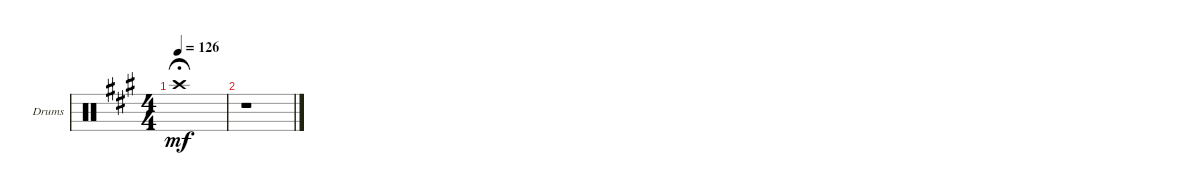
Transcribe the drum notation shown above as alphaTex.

\defaultSystemsLayout 4
\bracketExtendMode groupsimilarinstruments
\firstSystemTrackNameOrientation horizontal
\otherSystemsTrackNameOrientation horizontal
\track ("Drums" "Drums") {instrument percussion}
\staff {score}
\articulation defaults
\ts (4 4)
\tempo 126
\clef neutral
\ks a "Crash high (hit)"{t}.1{dy mf fermata (medium 0.82)}
|
r.1
